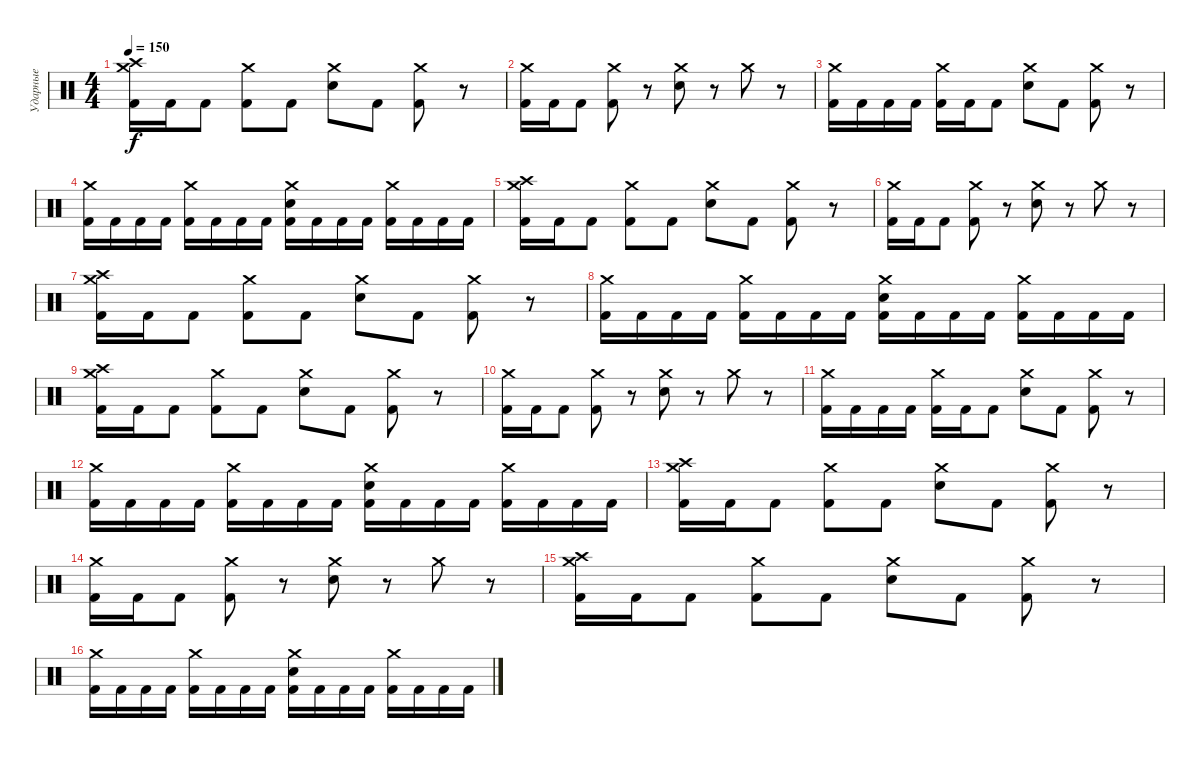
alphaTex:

\track ("Ударные" "Ударные") {instrument percussion}
\staff {score}
\articulation defaults
\ts (4 4)
\tempo 150
\clef neutral
\ks c
("Crash medium (hit)" "Crash high (hit)" "Kick (hit) 2").16{dy f} "Kick (hit) 2".16 "Kick (hit) 2".8 ("Crash medium (hit)" "Kick (hit) 2").8 "Kick (hit) 2".8 ("Crash medium (hit)" "Electric Snare (hit)").8 "Kick (hit) 2".8 ("Crash medium (hit)" "Kick (hit) 2").8 r.8 |
("Crash medium (hit)" "Kick (hit) 2").16 "Kick (hit) 2".16 "Kick (hit) 2".8 ("Crash medium (hit)" "Kick (hit) 2").8 r.8 ("Crash medium (hit)" "Electric Snare (hit)").8 r.8 "Crash medium (hit)".8 r.8 |
("Crash medium (hit)" "Kick (hit) 2").16 "Kick (hit) 2".16 "Kick (hit) 2".16 "Kick (hit) 2".16 ("Crash medium (hit)" "Kick (hit) 2").16 "Kick (hit) 2".16 "Kick (hit) 2".8 ("Crash medium (hit)" "Electric Snare (hit)").8 "Kick (hit) 2".8 ("Crash medium (hit)" "Kick (hit) 2").8 r.8 |
("Crash medium (hit)" "Kick (hit) 2").16 "Kick (hit) 2".16 "Kick (hit) 2".16 "Kick (hit) 2".16 ("Crash medium (hit)" "Kick (hit) 2").16 "Kick (hit) 2".16 "Kick (hit) 2".16 "Kick (hit) 2".16 ("Crash medium (hit)" "Electric Snare (hit)" "Kick (hit) 2").16 "Kick (hit) 2".16 "Kick (hit) 2".16 "Kick (hit) 2".16 ("Crash medium (hit)" "Kick (hit) 2").16 "Kick (hit) 2".16 "Kick (hit) 2".16 "Kick (hit) 2".16 |
("Crash medium (hit)" "Crash high (hit)" "Kick (hit) 2").16 "Kick (hit) 2".16 "Kick (hit) 2".8 ("Crash medium (hit)" "Kick (hit) 2").8 "Kick (hit) 2".8 ("Crash medium (hit)" "Electric Snare (hit)").8 "Kick (hit) 2".8 ("Crash medium (hit)" "Kick (hit) 2").8 r.8 |
("Crash medium (hit)" "Kick (hit) 2").16 "Kick (hit) 2".16 "Kick (hit) 2".8 ("Crash medium (hit)" "Kick (hit) 2").8 r.8 ("Crash medium (hit)" "Electric Snare (hit)").8 r.8 "Crash medium (hit)".8 r.8 |
("Crash medium (hit)" "Crash high (hit)" "Kick (hit) 2").16 "Kick (hit) 2".16 "Kick (hit) 2".8 ("Crash medium (hit)" "Kick (hit) 2").8 "Kick (hit) 2".8 ("Crash medium (hit)" "Electric Snare (hit)").8 "Kick (hit) 2".8 ("Crash medium (hit)" "Kick (hit) 2").8 r.8 |
("Crash medium (hit)" "Kick (hit) 2").16 "Kick (hit) 2".16 "Kick (hit) 2".16 "Kick (hit) 2".16 ("Crash medium (hit)" "Kick (hit) 2").16 "Kick (hit) 2".16 "Kick (hit) 2".16 "Kick (hit) 2".16 ("Crash medium (hit)" "Electric Snare (hit)" "Kick (hit) 2").16 "Kick (hit) 2".16 "Kick (hit) 2".16 "Kick (hit) 2".16 ("Crash medium (hit)" "Kick (hit) 2").16 "Kick (hit) 2".16 "Kick (hit) 2".16 "Kick (hit) 2".16 |
("Crash medium (hit)" "Crash high (hit)" "Kick (hit) 2").16 "Kick (hit) 2".16 "Kick (hit) 2".8 ("Crash medium (hit)" "Kick (hit) 2").8 "Kick (hit) 2".8 ("Crash medium (hit)" "Electric Snare (hit)").8 "Kick (hit) 2".8 ("Crash medium (hit)" "Kick (hit) 2").8 r.8 |
("Crash medium (hit)" "Kick (hit) 2").16 "Kick (hit) 2".16 "Kick (hit) 2".8 ("Crash medium (hit)" "Kick (hit) 2").8 r.8 ("Crash medium (hit)" "Electric Snare (hit)").8 r.8 "Crash medium (hit)".8 r.8 |
("Crash medium (hit)" "Kick (hit) 2").16 "Kick (hit) 2".16 "Kick (hit) 2".16 "Kick (hit) 2".16 ("Crash medium (hit)" "Kick (hit) 2").16 "Kick (hit) 2".16 "Kick (hit) 2".8 ("Crash medium (hit)" "Electric Snare (hit)").8 "Kick (hit) 2".8 ("Crash medium (hit)" "Kick (hit) 2").8 r.8 |
("Crash medium (hit)" "Kick (hit) 2").16 "Kick (hit) 2".16 "Kick (hit) 2".16 "Kick (hit) 2".16 ("Crash medium (hit)" "Kick (hit) 2").16 "Kick (hit) 2".16 "Kick (hit) 2".16 "Kick (hit) 2".16 ("Crash medium (hit)" "Electric Snare (hit)" "Kick (hit) 2").16 "Kick (hit) 2".16 "Kick (hit) 2".16 "Kick (hit) 2".16 ("Crash medium (hit)" "Kick (hit) 2").16 "Kick (hit) 2".16 "Kick (hit) 2".16 "Kick (hit) 2".16 |
("Crash medium (hit)" "Crash high (hit)" "Kick (hit) 2").16 "Kick (hit) 2".16 "Kick (hit) 2".8 ("Crash medium (hit)" "Kick (hit) 2").8 "Kick (hit) 2".8 ("Crash medium (hit)" "Electric Snare (hit)").8 "Kick (hit) 2".8 ("Crash medium (hit)" "Kick (hit) 2").8 r.8 |
("Crash medium (hit)" "Kick (hit) 2").16 "Kick (hit) 2".16 "Kick (hit) 2".8 ("Crash medium (hit)" "Kick (hit) 2").8 r.8 ("Crash medium (hit)" "Electric Snare (hit)").8 r.8 "Crash medium (hit)".8 r.8 |
("Crash medium (hit)" "Crash high (hit)" "Kick (hit) 2").16 "Kick (hit) 2".16 "Kick (hit) 2".8 ("Crash medium (hit)" "Kick (hit) 2").8 "Kick (hit) 2".8 ("Crash medium (hit)" "Electric Snare (hit)").8 "Kick (hit) 2".8 ("Crash medium (hit)" "Kick (hit) 2").8 r.8 |
("Crash medium (hit)" "Kick (hit) 2").16 "Kick (hit) 2".16 "Kick (hit) 2".16 "Kick (hit) 2".16 ("Crash medium (hit)" "Kick (hit) 2").16 "Kick (hit) 2".16 "Kick (hit) 2".16 "Kick (hit) 2".16 ("Crash medium (hit)" "Electric Snare (hit)" "Kick (hit) 2").16 "Kick (hit) 2".16 "Kick (hit) 2".16 "Kick (hit) 2".16 ("Crash medium (hit)" "Kick (hit) 2").16 "Kick (hit) 2".16 "Kick (hit) 2".16 "Kick (hit) 2".16
